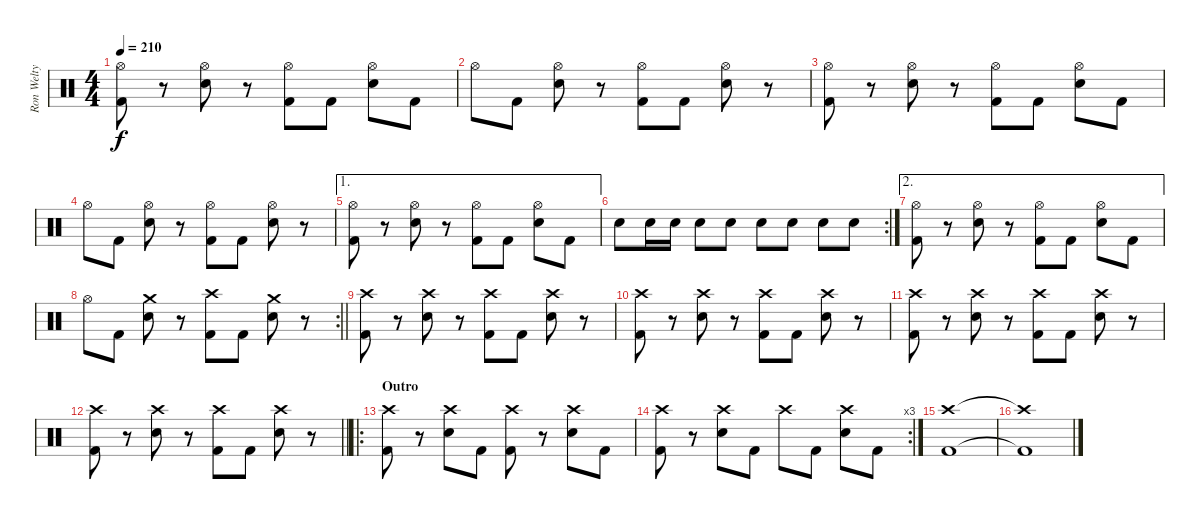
\track ("Ron Welty" "Ron Welty") {instrument percussion}
\staff {score}
\articulation defaults
\ts (4 4)
\tempo 210
\clef neutral
\ks c
("Hi-Hat (open)" "Kick (hit) 2").8{dy f} r.8 ("Hi-Hat (open)" "Electric Snare (hit)").8 r.8 ("Hi-Hat (open)" "Kick (hit) 2").8 "Kick (hit) 2".8 ("Hi-Hat (open)" "Electric Snare (hit)").8 "Kick (hit) 2".8 |
"Hi-Hat (open)".8 "Kick (hit) 2".8 ("Hi-Hat (open)" "Electric Snare (hit)").8 r.8 ("Hi-Hat (open)" "Kick (hit) 2").8 "Kick (hit) 2".8 ("Hi-Hat (open)" "Electric Snare (hit)").8 r.8 |
("Hi-Hat (open)" "Kick (hit) 2").8 r.8 ("Hi-Hat (open)" "Electric Snare (hit)").8 r.8 ("Hi-Hat (open)" "Kick (hit) 2").8 "Kick (hit) 2".8 ("Hi-Hat (open)" "Electric Snare (hit)").8 "Kick (hit) 2".8 |
"Hi-Hat (open)".8 "Kick (hit) 2".8 ("Hi-Hat (open)" "Electric Snare (hit)").8 r.8 ("Hi-Hat (open)" "Kick (hit) 2").8 "Kick (hit) 2".8 ("Hi-Hat (open)" "Electric Snare (hit)").8 r.8 |
\ae 1
("Hi-Hat (open)" "Kick (hit) 2").8 r.8 ("Hi-Hat (open)" "Electric Snare (hit)").8 r.8 ("Hi-Hat (open)" "Kick (hit) 2").8 "Kick (hit) 2".8 ("Hi-Hat (open)" "Electric Snare (hit)").8 "Kick (hit) 2".8 |
\rc 2 "Electric Snare (hit)".8 "Electric Snare (hit)".16 "Electric Snare (hit)".16 "Electric Snare (hit)".8 "Electric Snare (hit)".8 "Electric Snare (hit)".8 "Electric Snare (hit)".8 "Electric Snare (hit)".8 "Electric Snare (hit)".8
|
\ae 2
("Hi-Hat (open)" "Kick (hit) 2").8 r.8 ("Hi-Hat (open)" "Electric Snare (hit)").8 r.8 ("Hi-Hat (open)" "Kick (hit) 2").8 "Kick (hit) 2".8 ("Hi-Hat (open)" "Electric Snare (hit)").8 "Kick (hit) 2".8 |
\rc 2
\barLineRight lightlight "Hi-Hat (open)".8 "Kick (hit) 2".8
("Crash medium (hit)" "Electric Snare (hit)").8 r.8 ("Crash high (hit)" "Kick (hit) 2").8 "Kick (hit) 2".8 ("Crash medium (hit)" "Electric Snare (hit)").8 r.8 |
("Crash high (hit)" "Kick (hit) 2").8 r.8 ("Crash high (hit)" "Electric Snare (hit)").8 r.8 ("Crash high (hit)" "Kick (hit) 2").8 "Kick (hit) 2".8 ("Crash high (hit)" "Electric Snare (hit)").8 r.8 |
("Crash high (hit)" "Kick (hit) 2").8 r.8 ("Crash high (hit)" "Electric Snare (hit)").8 r.8 ("Crash high (hit)" "Kick (hit) 2").8 "Kick (hit) 2".8 ("Crash high (hit)" "Electric Snare (hit)").8 r.8 |
("Crash high (hit)" "Kick (hit) 2").8 r.8 ("Crash high (hit)" "Electric Snare (hit)").8 r.8 ("Crash high (hit)" "Kick (hit) 2").8 "Kick (hit) 2".8 ("Crash high (hit)" "Electric Snare (hit)").8 r.8 |
\barLineRight lightlight
("Crash high (hit)" "Kick (hit) 2").8 r.8 ("Crash high (hit)" "Electric Snare (hit)").8 r.8 ("Crash high (hit)" "Kick (hit) 2").8 "Kick (hit) 2".8 ("Crash high (hit)" "Electric Snare (hit)").8 r.8 |
\ro
\section ("" "Outro")
("Crash high (hit)" "Kick (hit) 2").8 r.8 ("Crash high (hit)" "Electric Snare (hit)").8 "Kick (hit) 2".8 ("Crash high (hit)" "Kick (hit) 2").8 r.8 ("Crash high (hit)" "Electric Snare (hit)").8 "Kick (hit) 2".8 |
\rc 3
("Crash high (hit)" "Kick (hit) 2").8 r.8 ("Crash high (hit)" "Electric Snare (hit)").8 "Kick (hit) 2".8 "Crash high (hit)".8 "Kick (hit) 2".8 ("Crash high (hit)" "Electric Snare (hit)").8 "Kick (hit) 2".8 |
("Crash high (hit)" "Kick (hit) 2").1 |
("Crash high (hit)"{t} "Kick (hit) 2"{t}).1
